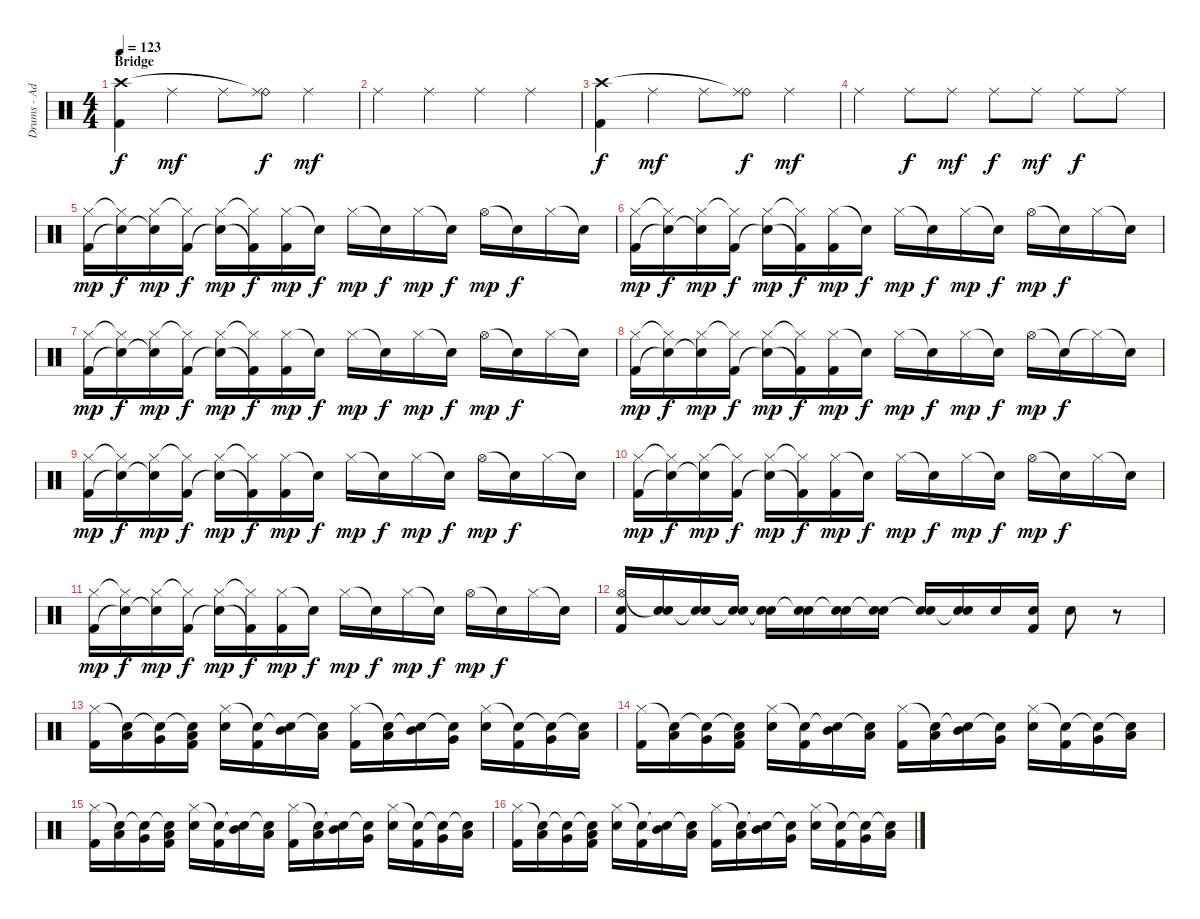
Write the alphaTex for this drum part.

\track ("Drums - Adam" "Drums - Ad") {instrument percussion}
\staff {score}
\articulation defaults
\ts (4 4)
\section ("" "Bridge")
\tempo 123
\clef neutral
\ks c
("Kick (hit) 2" "Crash high (hit)").4{dy f} "Ride (middle)".4{dy mf} "Ride (middle)".8 ("Ride (bell)" "Ride (middle)"{t}).8{dy f} "Ride (middle)".4{dy mf} |
"Ride (middle)".4 "Ride (middle)".4 "Ride (middle)".4 "Ride (middle)".4 |
("Kick (hit) 2" "Crash high (hit)").4{dy f} "Ride (middle)".4{dy mf} "Ride (middle)".8 ("Ride (bell)" "Ride (middle)"{t}).8{dy f} "Ride (middle)".4{dy mf} |
"Ride (middle)".4 "Ride (middle)".8{dy f} "Ride (middle)".8{dy mf} "Ride (middle)".8{dy f} "Ride (middle)".8{dy mf} "Ride (middle)".8{dy f} "Ride (middle)".8 |
("Hi-Hat (closed)" "Kick (hit) 2").16{dy mp} ("Hi-Hat (closed)"{t} "Snare (hit)"{t}).16{dy f} ("Hi-Hat (closed)" "Snare (hit)"{t}).16{dy mp} ("Hi-Hat (closed)"{t} "Kick (hit) 2").16{dy f} ("Hi-Hat (closed)" "Snare (hit)"{t}).16{dy mp} ("Hi-Hat (closed)"{t} "Kick (hit) 2"{t}).16{dy f} ("Hi-Hat (closed)" "Kick (hit) 2").16{dy mp} "Snare (hit)"{t}.16{dy f} "Hi-Hat (closed)".16{dy mp} "Snare (hit)"{t}.16{dy f} "Hi-Hat (closed)".16{dy mp} "Snare (hit)"{t}.16{dy f} "Hi-Hat (open)".16{dy mp} "Snare (hit)"{t}.16{dy f} "Hi-Hat (closed)".16 "Snare (hit)"{t}.16 |
("Hi-Hat (closed)" "Kick (hit) 2").16{dy mp} ("Hi-Hat (closed)"{t} "Snare (hit)"{t}).16{dy f} ("Hi-Hat (closed)" "Snare (hit)"{t}).16{dy mp} ("Hi-Hat (closed)"{t} "Kick (hit) 2").16{dy f} ("Hi-Hat (closed)" "Snare (hit)"{t}).16{dy mp} ("Hi-Hat (closed)"{t} "Kick (hit) 2"{t}).16{dy f} ("Hi-Hat (closed)" "Kick (hit) 2").16{dy mp} "Snare (hit)"{t}.16{dy f} "Hi-Hat (closed)".16{dy mp} "Snare (hit)"{t}.16{dy f} "Hi-Hat (closed)".16{dy mp} "Snare (hit)"{t}.16{dy f} "Hi-Hat (open)".16{dy mp} "Snare (hit)"{t}.16{dy f} "Hi-Hat (closed)".16 "Snare (hit)"{t}.16 |
("Hi-Hat (closed)" "Kick (hit) 2").16{dy mp} ("Hi-Hat (closed)"{t} "Snare (hit)"{t}).16{dy f} ("Hi-Hat (closed)" "Snare (hit)"{t}).16{dy mp} ("Hi-Hat (closed)"{t} "Kick (hit) 2").16{dy f} ("Hi-Hat (closed)" "Snare (hit)"{t}).16{dy mp} ("Hi-Hat (closed)"{t} "Kick (hit) 2"{t}).16{dy f} ("Hi-Hat (closed)" "Kick (hit) 2").16{dy mp} "Snare (hit)"{t}.16{dy f} "Hi-Hat (closed)".16{dy mp} "Snare (hit)"{t}.16{dy f} "Hi-Hat (closed)".16{dy mp} "Snare (hit)"{t}.16{dy f} "Hi-Hat (open)".16{dy mp} "Snare (hit)"{t}.16{dy f} "Hi-Hat (closed)".16 "Snare (hit)"{t}.16 |
("Hi-Hat (closed)" "Kick (hit) 2").16{dy mp} ("Hi-Hat (closed)"{t} "Snare (hit)"{t}).16{dy f} ("Hi-Hat (closed)" "Snare (hit)"{t}).16{dy mp} ("Hi-Hat (closed)"{t} "Kick (hit) 2").16{dy f} ("Hi-Hat (closed)" "Snare (hit)"{t}).16{dy mp} ("Hi-Hat (closed)"{t} "Kick (hit) 2"{t}).16{dy f} ("Hi-Hat (closed)" "Kick (hit) 2").16{dy mp} "Snare (hit)"{t}.16{dy f} "Hi-Hat (closed)".16{dy mp} "Snare (hit)"{t}.16{dy f} "Hi-Hat (closed)".16{dy mp} "Snare (hit)"{t}.16{dy f} "Hi-Hat (open)".16{dy mp} "Snare (hit)"{t}.16{dy f} "Hi-Hat (closed)"{t}.16 "Snare (hit)"{t}.16 |
("Hi-Hat (closed)" "Kick (hit) 2").16{dy mp} ("Hi-Hat (closed)"{t} "Snare (hit)"{t}).16{dy f} ("Hi-Hat (closed)" "Snare (hit)"{t}).16{dy mp} ("Hi-Hat (closed)"{t} "Kick (hit) 2").16{dy f} ("Hi-Hat (closed)" "Snare (hit)"{t}).16{dy mp} ("Hi-Hat (closed)"{t} "Kick (hit) 2"{t}).16{dy f} ("Hi-Hat (closed)" "Kick (hit) 2").16{dy mp} "Snare (hit)"{t}.16{dy f} "Hi-Hat (closed)".16{dy mp} "Snare (hit)"{t}.16{dy f} "Hi-Hat (closed)".16{dy mp} "Snare (hit)"{t}.16{dy f} "Hi-Hat (open)".16{dy mp} "Snare (hit)"{t}.16{dy f} "Hi-Hat (closed)".16 "Snare (hit)"{t}.16 |
("Hi-Hat (closed)" "Kick (hit) 2").16{dy mp} ("Hi-Hat (closed)"{t} "Snare (hit)"{t}).16{dy f} ("Hi-Hat (closed)" "Snare (hit)"{t}).16{dy mp} ("Hi-Hat (closed)"{t} "Kick (hit) 2").16{dy f} ("Hi-Hat (closed)" "Snare (hit)"{t}).16{dy mp} ("Hi-Hat (closed)"{t} "Kick (hit) 2"{t}).16{dy f} ("Hi-Hat (closed)" "Kick (hit) 2").16{dy mp} "Snare (hit)"{t}.16{dy f} "Hi-Hat (closed)".16{dy mp} "Snare (hit)"{t}.16{dy f} "Hi-Hat (closed)".16{dy mp} "Snare (hit)"{t}.16{dy f} "Hi-Hat (open)".16{dy mp} "Snare (hit)"{t}.16{dy f} "Hi-Hat (closed)".16 "Snare (hit)"{t}.16 |
("Hi-Hat (closed)" "Kick (hit) 2").16{dy mp} ("Hi-Hat (closed)"{t} "Snare (hit)"{t}).16{dy f} ("Hi-Hat (closed)" "Snare (hit)"{t}).16{dy mp} ("Hi-Hat (closed)"{t} "Kick (hit) 2").16{dy f} ("Hi-Hat (closed)" "Snare (hit)"{t}).16{dy mp} ("Hi-Hat (closed)"{t} "Kick (hit) 2"{t}).16{dy f} ("Hi-Hat (closed)" "Kick (hit) 2").16{dy mp} "Snare (hit)"{t}.16{dy f} "Hi-Hat (closed)".16{dy mp} "Snare (hit)"{t}.16{dy f} "Hi-Hat (closed)".16{dy mp} "Snare (hit)"{t}.16{dy f} "Hi-Hat (open)".16{dy mp} "Snare (hit)"{t}.16{dy f} "Hi-Hat (closed)".16 "Snare (hit)"{t}.16 |
("Hi-Hat (open)" "Kick (hit) 2" "Electric Snare (hit)").16 ("Snare (hit)"{t} "Electric Snare (hit)").16 ("Snare (hit)"{t} "Electric Snare (hit)").16 ("Snare (hit)"{t} "Electric Snare (hit)").16 ("Snare (hit)"{t} "Electric Snare (hit)").16 ("Snare (hit)"{t} "Electric Snare (hit)").16 ("Snare (hit)"{t} "Electric Snare (hit)").16 ("Snare (hit)"{t} "Electric Snare (hit)").16 ("Snare (hit)"{t} "Electric Snare (hit)").16 ("Snare (hit)"{t} "Electric Snare (hit)").16 "Electric Snare (hit)".16 ("Kick (hit) 2" "Electric Snare (hit)").16 "Electric Snare (hit)".8 r.8 |
("Hi-Hat (closed)" "Kick (hit) 2").16 ("Snare (hit)"{t} "Low Tom (hit)").16 ("Snare (hit)"{t} "Very Low Tom (hit)").16 ("Snare (hit)"{t} "Kick (hit) 2" "Low Floor Tom (hit)").16 ("Hi-Hat (closed)" "Electric Snare (hit)").16 ("Snare (hit)"{t} "Kick (hit) 2").16 ("Snare (hit)"{t} "Mid Tom (hit)").16 ("Snare (hit)"{t} "Low Tom (hit)").16 ("Hi-Hat (closed)" "Kick (hit) 2").16 ("Snare (hit)"{t} "Low Tom (hit)").16 ("Snare (hit)"{t} "Mid Tom (hit)").16 ("Snare (hit)"{t} "Very Low Tom (hit)").16 ("Hi-Hat (closed)" "Electric Snare (hit)").16 ("Snare (hit)"{t} "Kick (hit) 2").16 ("Snare (hit)"{t} "Very Low Tom (hit)").16 ("Snare (hit)"{t} "Low Floor Tom (hit)").16 |
("Hi-Hat (closed)" "Kick (hit) 2").16 ("Snare (hit)"{t} "Low Tom (hit)").16 ("Snare (hit)"{t} "Very Low Tom (hit)").16 ("Snare (hit)"{t} "Kick (hit) 2" "Low Floor Tom (hit)").16 ("Hi-Hat (closed)" "Electric Snare (hit)").16 ("Snare (hit)"{t} "Kick (hit) 2").16 ("Snare (hit)"{t} "Mid Tom (hit)").16 ("Snare (hit)"{t} "Low Tom (hit)").16 ("Hi-Hat (closed)" "Kick (hit) 2").16 ("Snare (hit)"{t} "Low Tom (hit)").16 ("Snare (hit)"{t} "Mid Tom (hit)").16 ("Snare (hit)"{t} "Very Low Tom (hit)").16 ("Hi-Hat (closed)" "Electric Snare (hit)").16 ("Snare (hit)"{t} "Kick (hit) 2").16 ("Snare (hit)"{t} "Very Low Tom (hit)").16 ("Snare (hit)"{t} "Low Floor Tom (hit)").16 |
("Hi-Hat (closed)" "Kick (hit) 2").16 ("Snare (hit)"{t} "Low Tom (hit)").16 ("Snare (hit)"{t} "Very Low Tom (hit)").16 ("Snare (hit)"{t} "Kick (hit) 2" "Low Floor Tom (hit)").16 ("Hi-Hat (closed)" "Electric Snare (hit)").16 ("Snare (hit)"{t} "Kick (hit) 2").16 ("Snare (hit)"{t} "Mid Tom (hit)").16 ("Snare (hit)"{t} "Low Tom (hit)").16 ("Hi-Hat (closed)" "Kick (hit) 2").16 ("Snare (hit)"{t} "Low Tom (hit)").16 ("Snare (hit)"{t} "Mid Tom (hit)").16 ("Snare (hit)"{t} "Very Low Tom (hit)").16 ("Hi-Hat (closed)" "Electric Snare (hit)").16 ("Snare (hit)"{t} "Kick (hit) 2").16 ("Snare (hit)"{t} "Very Low Tom (hit)").16 ("Snare (hit)"{t} "Low Floor Tom (hit)").16 |
("Hi-Hat (closed)" "Kick (hit) 2").16 ("Snare (hit)"{t} "Low Tom (hit)").16 ("Snare (hit)"{t} "Very Low Tom (hit)").16 ("Snare (hit)"{t} "Kick (hit) 2" "Low Floor Tom (hit)").16 ("Hi-Hat (closed)" "Electric Snare (hit)").16 ("Snare (hit)"{t} "Kick (hit) 2").16 ("Snare (hit)"{t} "Mid Tom (hit)").16 ("Snare (hit)"{t} "Low Tom (hit)").16 ("Hi-Hat (closed)" "Kick (hit) 2").16 ("Snare (hit)"{t} "Low Tom (hit)").16 ("Snare (hit)"{t} "Mid Tom (hit)").16 ("Snare (hit)"{t} "Very Low Tom (hit)").16 ("Hi-Hat (closed)" "Electric Snare (hit)").16 ("Snare (hit)"{t} "Kick (hit) 2").16 ("Snare (hit)"{t} "Very Low Tom (hit)").16 ("Snare (hit)"{t} "Low Floor Tom (hit)").16
